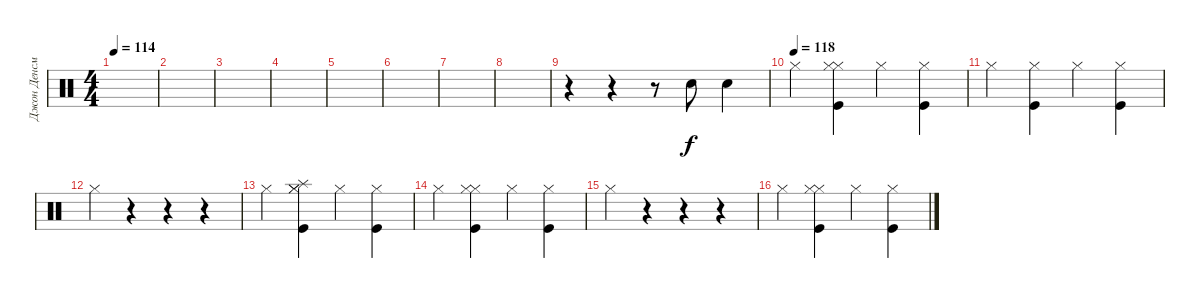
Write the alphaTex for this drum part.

\track ("Джон Денсмор" "Джон Денсм") {instrument percussion}
\staff {score}
\articulation defaults
\ts (4 4)
\tempo 114
\clef neutral
\ks c
|
|
|
|
|
|
|
|
r.4 r.4 r.8 "Snare (hit) 2".8 "Snare (hit) 2".4 |
\tempo 115
\tempo (118)
"Hi-Hat (closed)".4 ("Hi-Hat (closed)" "Hi-Hat (closed)" "Kick (hit)").4 "Hi-Hat (closed)".4 ("Hi-Hat (closed)" "Kick (hit)").4 |
"Hi-Hat (closed)".4 ("Hi-Hat (closed)" "Kick (hit)").4 "Hi-Hat (closed)".4 ("Hi-Hat (closed)" "Kick (hit)").4 |
"Hi-Hat (closed)".4 r.4 r.4 r.4 |
"Hi-Hat (closed)".4 ("Hi-Hat (closed)" "Hi-Hat (closed)" "Kick (hit)" "Splash (hit)").4 "Hi-Hat (closed)".4 ("Hi-Hat (closed)" "Kick (hit)").4 |
"Hi-Hat (closed)".4 ("Hi-Hat (closed)" "Hi-Hat (closed)" "Kick (hit)").4 "Hi-Hat (closed)".4 ("Hi-Hat (closed)" "Kick (hit)").4 |
"Hi-Hat (closed)".4 r.4 r.4 r.4 |
"Hi-Hat (closed)".4 ("Hi-Hat (closed)" "Hi-Hat (closed)" "Kick (hit)").4 "Hi-Hat (closed)".4 ("Hi-Hat (closed)" "Kick (hit)").4
